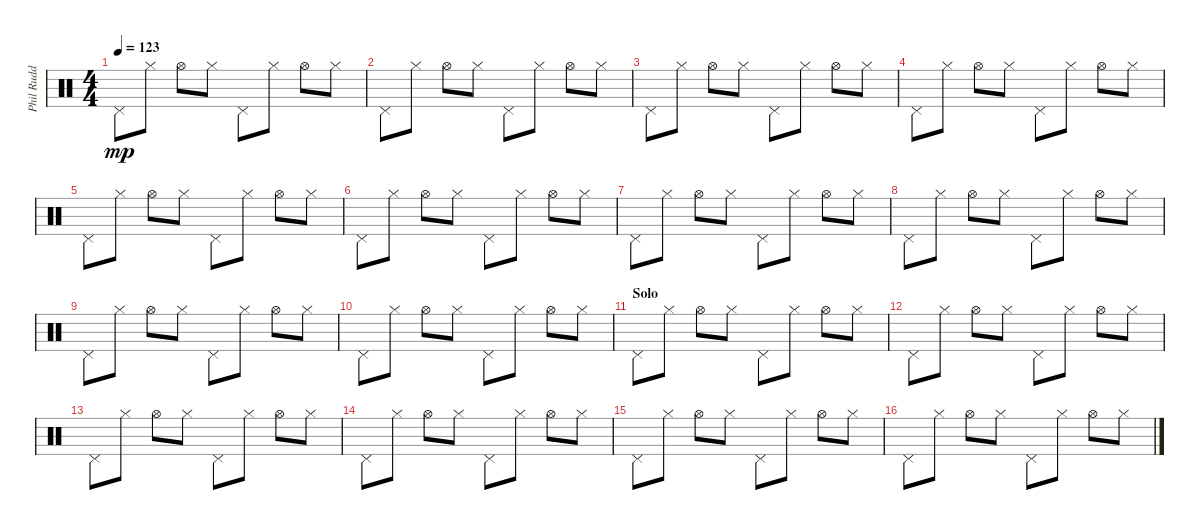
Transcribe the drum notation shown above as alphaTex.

\track ("Phil Rudd (HiHat)" "Phil Rudd ") {instrument percussion}
\staff {score}
\articulation defaults
\ts (4 4)
\tempo 123
\clef neutral
\ks c "Pedal Hi-Hat (hit)".8{dy mp} "Hi-Hat (closed)".8 "Hi-Hat (open)".8 "Hi-Hat (closed)".8 "Pedal Hi-Hat (hit)".8 "Hi-Hat (closed)".8 "Hi-Hat (open)".8 "Hi-Hat (closed)".8
|
"Pedal Hi-Hat (hit)".8 "Hi-Hat (closed)".8 "Hi-Hat (open)".8 "Hi-Hat (closed)".8 "Pedal Hi-Hat (hit)".8 "Hi-Hat (closed)".8 "Hi-Hat (open)".8 "Hi-Hat (closed)".8 |
"Pedal Hi-Hat (hit)".8 "Hi-Hat (closed)".8 "Hi-Hat (open)".8 "Hi-Hat (closed)".8 "Pedal Hi-Hat (hit)".8 "Hi-Hat (closed)".8 "Hi-Hat (open)".8 "Hi-Hat (closed)".8 |
"Pedal Hi-Hat (hit)".8 "Hi-Hat (closed)".8 "Hi-Hat (open)".8 "Hi-Hat (closed)".8 "Pedal Hi-Hat (hit)".8 "Hi-Hat (closed)".8 "Hi-Hat (open)".8 "Hi-Hat (closed)".8 |
"Pedal Hi-Hat (hit)".8 "Hi-Hat (closed)".8 "Hi-Hat (open)".8 "Hi-Hat (closed)".8 "Pedal Hi-Hat (hit)".8 "Hi-Hat (closed)".8 "Hi-Hat (open)".8 "Hi-Hat (closed)".8 |
"Pedal Hi-Hat (hit)".8 "Hi-Hat (closed)".8 "Hi-Hat (open)".8 "Hi-Hat (closed)".8 "Pedal Hi-Hat (hit)".8 "Hi-Hat (closed)".8 "Hi-Hat (open)".8 "Hi-Hat (closed)".8 |
"Pedal Hi-Hat (hit)".8 "Hi-Hat (closed)".8 "Hi-Hat (open)".8 "Hi-Hat (closed)".8 "Pedal Hi-Hat (hit)".8 "Hi-Hat (closed)".8 "Hi-Hat (open)".8 "Hi-Hat (closed)".8 |
"Pedal Hi-Hat (hit)".8 "Hi-Hat (closed)".8 "Hi-Hat (open)".8 "Hi-Hat (closed)".8 "Pedal Hi-Hat (hit)".8 "Hi-Hat (closed)".8 "Hi-Hat (open)".8 "Hi-Hat (closed)".8 |
"Pedal Hi-Hat (hit)".8 "Hi-Hat (closed)".8 "Hi-Hat (open)".8 "Hi-Hat (closed)".8 "Pedal Hi-Hat (hit)".8 "Hi-Hat (closed)".8 "Hi-Hat (open)".8 "Hi-Hat (closed)".8 |
"Pedal Hi-Hat (hit)".8 "Hi-Hat (closed)".8 "Hi-Hat (open)".8 "Hi-Hat (closed)".8 "Pedal Hi-Hat (hit)".8 "Hi-Hat (closed)".8 "Hi-Hat (open)".8 "Hi-Hat (closed)".8 |
\section ("" "Solo")
"Pedal Hi-Hat (hit)".8 "Hi-Hat (closed)".8 "Hi-Hat (open)".8 "Hi-Hat (closed)".8 "Pedal Hi-Hat (hit)".8 "Hi-Hat (closed)".8 "Hi-Hat (open)".8 "Hi-Hat (closed)".8 |
"Pedal Hi-Hat (hit)".8 "Hi-Hat (closed)".8 "Hi-Hat (open)".8 "Hi-Hat (closed)".8 "Pedal Hi-Hat (hit)".8 "Hi-Hat (closed)".8 "Hi-Hat (open)".8 "Hi-Hat (closed)".8 |
"Pedal Hi-Hat (hit)".8 "Hi-Hat (closed)".8 "Hi-Hat (open)".8 "Hi-Hat (closed)".8 "Pedal Hi-Hat (hit)".8 "Hi-Hat (closed)".8 "Hi-Hat (open)".8 "Hi-Hat (closed)".8 |
"Pedal Hi-Hat (hit)".8 "Hi-Hat (closed)".8 "Hi-Hat (open)".8 "Hi-Hat (closed)".8 "Pedal Hi-Hat (hit)".8 "Hi-Hat (closed)".8 "Hi-Hat (open)".8 "Hi-Hat (closed)".8 |
"Pedal Hi-Hat (hit)".8 "Hi-Hat (closed)".8 "Hi-Hat (open)".8 "Hi-Hat (closed)".8 "Pedal Hi-Hat (hit)".8 "Hi-Hat (closed)".8 "Hi-Hat (open)".8 "Hi-Hat (closed)".8 |
"Pedal Hi-Hat (hit)".8 "Hi-Hat (closed)".8 "Hi-Hat (open)".8 "Hi-Hat (closed)".8 "Pedal Hi-Hat (hit)".8 "Hi-Hat (closed)".8 "Hi-Hat (open)".8 "Hi-Hat (closed)".8
